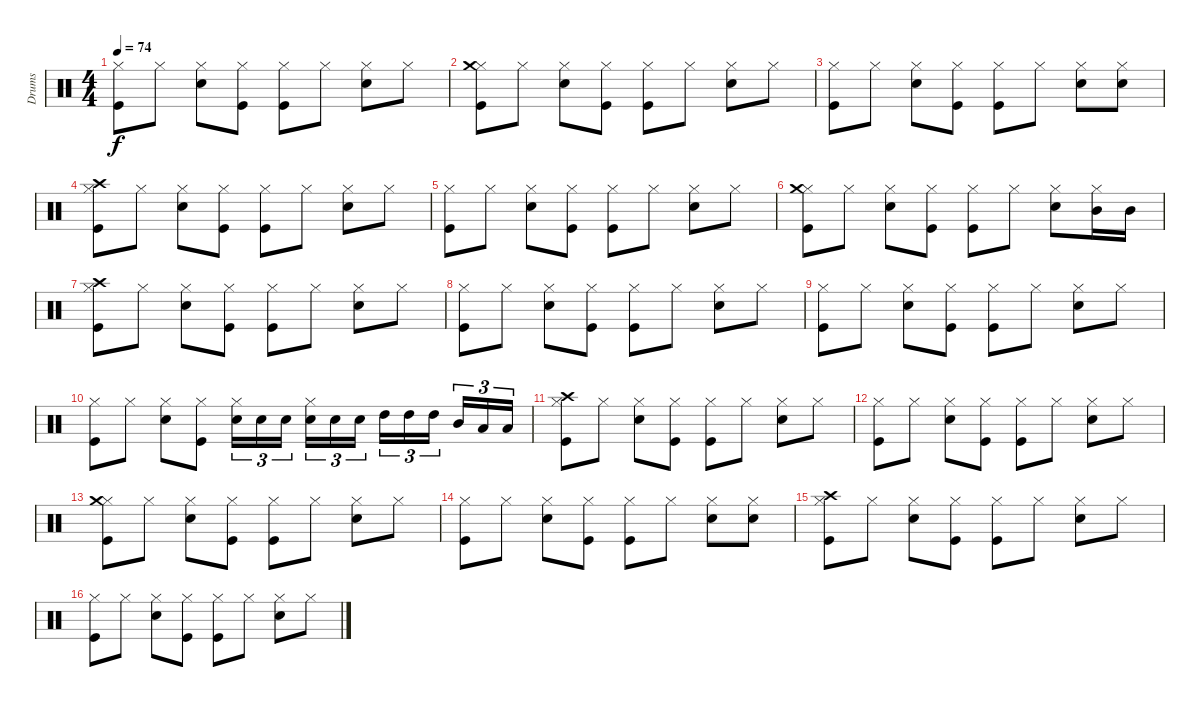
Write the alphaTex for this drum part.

\track ("Drums" "Drums") {instrument percussion}
\staff {score}
\articulation defaults
\ts (4 4)
\tempo 74
\clef neutral
\ks c
("Kick (hit)" "Hi-Hat (closed)").8{dy f} "Hi-Hat (closed)".8 ("Electric Snare (hit)" "Hi-Hat (closed)").8 ("Kick (hit)" "Hi-Hat (closed)").8 ("Kick (hit)" "Hi-Hat (closed)").8 "Hi-Hat (closed)".8 ("Electric Snare (hit)" "Hi-Hat (closed)").8 "Hi-Hat (closed)".8 |
("Kick (hit)" "Hi-Hat (closed)" "Crash medium (hit)").8 "Hi-Hat (closed)".8 ("Electric Snare (hit)" "Hi-Hat (closed)").8 ("Kick (hit)" "Hi-Hat (closed)").8 ("Kick (hit)" "Hi-Hat (closed)").8 "Hi-Hat (closed)".8 ("Electric Snare (hit)" "Hi-Hat (closed)").8 "Hi-Hat (closed)".8 |
("Kick (hit)" "Hi-Hat (closed)").8 "Hi-Hat (closed)".8 ("Electric Snare (hit)" "Hi-Hat (closed)").8 ("Kick (hit)" "Hi-Hat (closed)").8 ("Kick (hit)" "Hi-Hat (closed)").8 "Hi-Hat (closed)".8 ("Electric Snare (hit)" "Hi-Hat (closed)").8 ("Electric Snare (hit)" "Hi-Hat (closed)").8 |
("Kick (hit)" "Hi-Hat (closed)" "Crash high (hit)").8 "Hi-Hat (closed)".8 ("Electric Snare (hit)" "Hi-Hat (closed)").8 ("Kick (hit)" "Hi-Hat (closed)").8 ("Kick (hit)" "Hi-Hat (closed)").8 "Hi-Hat (closed)".8 ("Electric Snare (hit)" "Hi-Hat (closed)").8 "Hi-Hat (closed)".8 |
("Kick (hit)" "Hi-Hat (closed)").8 "Hi-Hat (closed)".8 ("Electric Snare (hit)" "Hi-Hat (closed)").8 ("Kick (hit)" "Hi-Hat (closed)").8 ("Kick (hit)" "Hi-Hat (closed)").8 "Hi-Hat (closed)".8 ("Electric Snare (hit)" "Hi-Hat (closed)").8 "Hi-Hat (closed)".8 |
("Kick (hit)" "Hi-Hat (closed)" "Crash medium (hit)").8 "Hi-Hat (closed)".8 ("Electric Snare (hit)" "Hi-Hat (closed)").8 ("Kick (hit)" "Hi-Hat (closed)").8 ("Kick (hit)" "Hi-Hat (closed)").8 "Hi-Hat (closed)".8 ("Electric Snare (hit)" "Hi-Hat (closed)").8 ("Mid Tom (hit)" "Hi-Hat (closed)").16 "Mid Tom (hit)".16 |
("Kick (hit)" "Hi-Hat (closed)" "Crash high (hit)").8 "Hi-Hat (closed)".8 ("Electric Snare (hit)" "Hi-Hat (closed)").8 ("Kick (hit)" "Hi-Hat (closed)").8 ("Kick (hit)" "Hi-Hat (closed)").8 "Hi-Hat (closed)".8 ("Electric Snare (hit)" "Hi-Hat (closed)").8 "Hi-Hat (closed)".8 |
("Kick (hit)" "Hi-Hat (closed)").8 "Hi-Hat (closed)".8 ("Electric Snare (hit)" "Hi-Hat (closed)").8 ("Kick (hit)" "Hi-Hat (closed)").8 ("Kick (hit)" "Hi-Hat (closed)").8 "Hi-Hat (closed)".8 ("Electric Snare (hit)" "Hi-Hat (closed)").8 "Hi-Hat (closed)".8 |
("Kick (hit)" "Hi-Hat (closed)").8 "Hi-Hat (closed)".8 ("Electric Snare (hit)" "Hi-Hat (closed)").8 ("Kick (hit)" "Hi-Hat (closed)").8 ("Kick (hit)" "Hi-Hat (closed)").8 "Hi-Hat (closed)".8 ("Electric Snare (hit)" "Hi-Hat (closed)").8 "Hi-Hat (closed)".8 |
("Kick (hit)" "Hi-Hat (closed)").8 "Hi-Hat (closed)".8 ("Electric Snare (hit)" "Hi-Hat (closed)").8 ("Kick (hit)" "Hi-Hat (closed)").8 ("Electric Snare (hit)" "Hi-Hat (closed)").16{tu (3 2)} "Electric Snare (hit)".16{tu (3 2)} "Electric Snare (hit)".16{tu (3 2)} ("Electric Snare (hit)" "Hi-Hat (closed)").16{tu (3 2)} "Electric Snare (hit)".16{tu (3 2)} "Electric Snare (hit)".16{tu (3 2)} "High Tom (hit)".16{tu (3 2)} "High Tom (hit)".16{tu (3 2)} "High Tom (hit)".16{tu (3 2)} "Mid Tom (hit)".16{tu (3 2)} "Low Tom (hit)".16{tu (3 2)} "Low Tom (hit)".16{tu (3 2)} |
("Kick (hit)" "Hi-Hat (closed)" "Crash high (hit)").8 "Hi-Hat (closed)".8 ("Electric Snare (hit)" "Hi-Hat (closed)").8 ("Kick (hit)" "Hi-Hat (closed)").8 ("Kick (hit)" "Hi-Hat (closed)").8 "Hi-Hat (closed)".8 ("Electric Snare (hit)" "Hi-Hat (closed)").8 "Hi-Hat (closed)".8 |
("Kick (hit)" "Hi-Hat (closed)").8 "Hi-Hat (closed)".8 ("Electric Snare (hit)" "Hi-Hat (closed)").8 ("Kick (hit)" "Hi-Hat (closed)").8 ("Kick (hit)" "Hi-Hat (closed)").8 "Hi-Hat (closed)".8 ("Electric Snare (hit)" "Hi-Hat (closed)").8 "Hi-Hat (closed)".8 |
("Kick (hit)" "Hi-Hat (closed)" "Crash medium (hit)").8 "Hi-Hat (closed)".8 ("Electric Snare (hit)" "Hi-Hat (closed)").8 ("Kick (hit)" "Hi-Hat (closed)").8 ("Kick (hit)" "Hi-Hat (closed)").8 "Hi-Hat (closed)".8 ("Electric Snare (hit)" "Hi-Hat (closed)").8 "Hi-Hat (closed)".8 |
("Kick (hit)" "Hi-Hat (closed)").8 "Hi-Hat (closed)".8 ("Electric Snare (hit)" "Hi-Hat (closed)").8 ("Kick (hit)" "Hi-Hat (closed)").8 ("Kick (hit)" "Hi-Hat (closed)").8 "Hi-Hat (closed)".8 ("Electric Snare (hit)" "Hi-Hat (closed)").8 ("Electric Snare (hit)" "Hi-Hat (closed)").8 |
("Kick (hit)" "Hi-Hat (closed)" "Crash high (hit)").8 "Hi-Hat (closed)".8 ("Electric Snare (hit)" "Hi-Hat (closed)").8 ("Kick (hit)" "Hi-Hat (closed)").8 ("Kick (hit)" "Hi-Hat (closed)").8 "Hi-Hat (closed)".8 ("Electric Snare (hit)" "Hi-Hat (closed)").8 "Hi-Hat (closed)".8 |
("Kick (hit)" "Hi-Hat (closed)").8 "Hi-Hat (closed)".8 ("Electric Snare (hit)" "Hi-Hat (closed)").8 ("Kick (hit)" "Hi-Hat (closed)").8 ("Kick (hit)" "Hi-Hat (closed)").8 "Hi-Hat (closed)".8 ("Electric Snare (hit)" "Hi-Hat (closed)").8 "Hi-Hat (closed)".8
